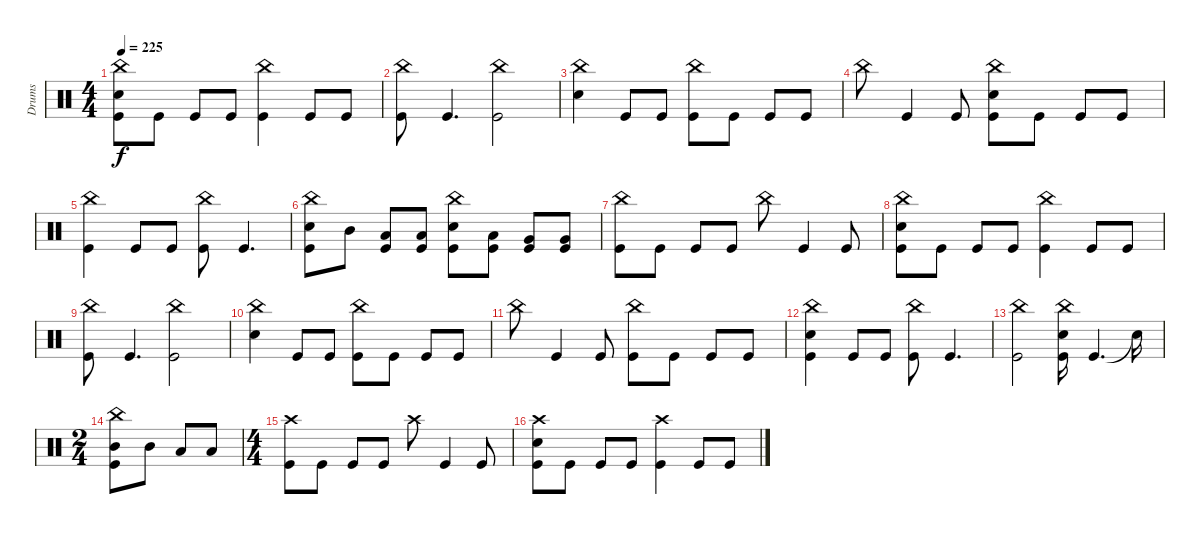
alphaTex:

\track ("Drums" "Drums") {instrument percussion}
\staff {score}
\articulation defaults
\ts (4 4)
\tempo 225
\clef neutral
\ks c
("China (hit)" "Snare (hit) 2" "Kick (hit)").8{dy f} "Kick (hit)".8 "Kick (hit)".8 "Kick (hit)".8 ("China (hit)" "Kick (hit)").4 "Kick (hit)".8 "Kick (hit)".8 |
("China (hit)" "Kick (hit)").8 "Kick (hit)".4{d} ("China (hit)" "Kick (hit)").2 |
("China (hit)" "Snare (hit) 2").4 "Kick (hit)".8 "Kick (hit)".8 ("China (hit)" "Kick (hit)").8 "Kick (hit)".8 "Kick (hit)".8 "Kick (hit)".8 |
"China (hit)".8 "Kick (hit)".4 "Kick (hit)".8 ("China (hit)" "Snare (hit) 2" "Kick (hit)").8 "Kick (hit)".8 "Kick (hit)".8 "Kick (hit)".8 |
("China (hit)" "Kick (hit)").4 "Kick (hit)".8 "Kick (hit)".8 ("China (hit)" "Kick (hit)").8 "Kick (hit)".4{d} |
("China (hit)" "Snare (hit) 2" "Kick (hit)").8 "Mid Tom (hit)".8 ("Low Tom (hit)" "Kick (hit)").8 ("Low Tom (hit)" "Kick (hit)").8 ("China (hit)" "Snare (hit) 2" "Kick (hit)").8 ("Low Tom (hit)" "Kick (hit)").8 ("Very Low Tom (hit)" "Kick (hit)").8 ("Very Low Tom (hit)" "Kick (hit)").8 |
("China (hit)" "Kick (hit)").8 "Kick (hit)".8 "Kick (hit)".8 "Kick (hit)".8 "China (hit)".8 "Kick (hit)".4 "Kick (hit)".8 |
("China (hit)" "Snare (hit) 2" "Kick (hit)").8 "Kick (hit)".8 "Kick (hit)".8 "Kick (hit)".8 ("China (hit)" "Kick (hit)").4 "Kick (hit)".8 "Kick (hit)".8 |
("China (hit)" "Kick (hit)").8 "Kick (hit)".4{d} ("China (hit)" "Kick (hit)").2 |
("China (hit)" "Snare (hit) 2").4 "Kick (hit)".8 "Kick (hit)".8 ("China (hit)" "Kick (hit)").8 "Kick (hit)".8 "Kick (hit)".8 "Kick (hit)".8 |
"China (hit)".8 "Kick (hit)".4 "Kick (hit)".8 ("China (hit)" "Kick (hit)").8 "Kick (hit)".8 "Kick (hit)".8 "Kick (hit)".8 |
("China (hit)" "Snare (hit) 2" "Kick (hit)").4 "Kick (hit)".8 "Kick (hit)".8 ("China (hit)" "Kick (hit)").8 "Kick (hit)".4{d} |
("China (hit)" "Kick (hit)").2 ("China (hit)" "Snare (hit) 2" "Kick (hit)").16 "Kick (hit)".4{d} "Snare (hit)"{t}.16 |
\ts (2 4)
("China (hit)" "Mid Tom (hit)" "Kick (hit)").8 "Mid Tom (hit)".8 "Low Tom (hit)".8 "Low Tom (hit)".8 |
\ts (4 4)
("Crash high (hit)" "Kick (hit)").8 "Kick (hit)".8 "Kick (hit)".8 "Kick (hit)".8 "Crash high (hit)".8 "Kick (hit)".4 "Kick (hit)".8 |
("Crash high (hit)" "Snare (hit) 2" "Kick (hit)").8 "Kick (hit)".8 "Kick (hit)".8 "Kick (hit)".8 ("Crash high (hit)" "Kick (hit)").4 "Kick (hit)".8 "Kick (hit)".8
